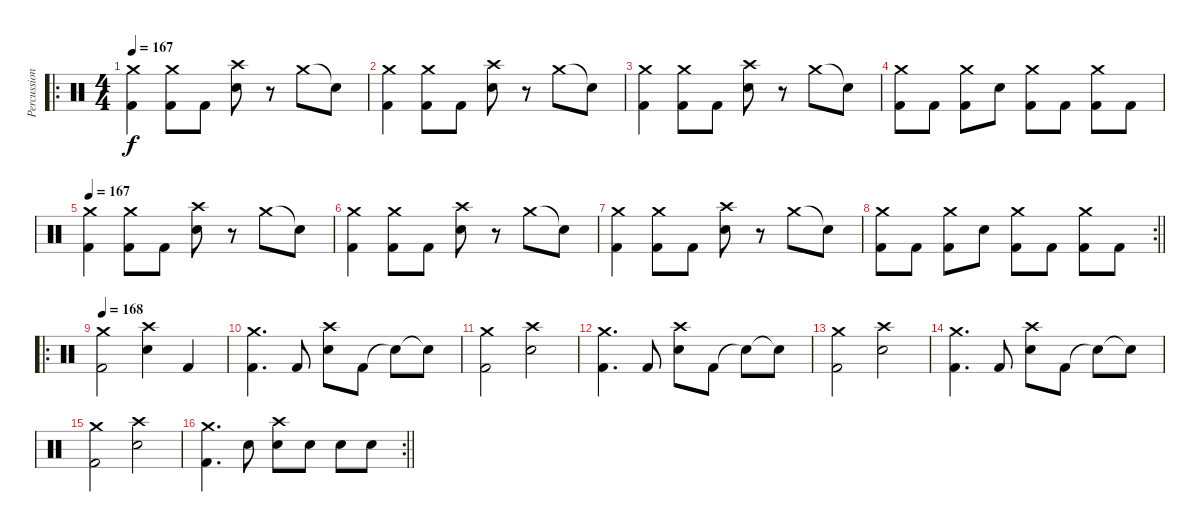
\track ("Percussion" "Percussion") {instrument percussion}
\staff {score}
\articulation defaults
\ro
\ts (4 4)
\section ("" "")
\tempo 167
\clef neutral
\ks c
("Crash medium (hit)" "Kick (hit) 2").4{dy f} ("Crash medium (hit)" "Kick (hit) 2").8 "Kick (hit) 2".8 ("Crash high (hit)" "Electric Snare (hit)").8 r.8 "Crash medium (hit)".8 "Snare (hit)"{t}.8 |
("Crash medium (hit)" "Kick (hit) 2").4 ("Crash medium (hit)" "Kick (hit) 2").8 "Kick (hit) 2".8 ("Crash high (hit)" "Electric Snare (hit)").8 r.8 "Crash medium (hit)".8 "Snare (hit)"{t}.8 |
("Crash medium (hit)" "Kick (hit) 2").4 ("Crash medium (hit)" "Kick (hit) 2").8 "Kick (hit) 2".8 ("Crash high (hit)" "Electric Snare (hit)").8 r.8 "Crash medium (hit)".8 "Snare (hit)"{t}.8 |
("Crash medium (hit)" "Kick (hit) 2").8 "Kick (hit) 2".8 ("Crash medium (hit)" "Kick (hit) 2").8 "Electric Snare (hit)".8 ("Crash medium (hit)" "Kick (hit) 2").8 "Kick (hit) 2".8 ("Crash medium (hit)" "Kick (hit) 2").8 "Kick (hit) 2".8 |
\tempo 167
("Crash medium (hit)" "Kick (hit) 2").4 ("Crash medium (hit)" "Kick (hit) 2").8 "Kick (hit) 2".8 ("Crash high (hit)" "Electric Snare (hit)").8 r.8 "Crash medium (hit)".8 "Snare (hit)"{t}.8 |
("Crash medium (hit)" "Kick (hit) 2").4 ("Crash medium (hit)" "Kick (hit) 2").8 "Kick (hit) 2".8 ("Crash high (hit)" "Electric Snare (hit)").8 r.8 "Crash medium (hit)".8 "Snare (hit)"{t}.8 |
("Crash medium (hit)" "Kick (hit) 2").4 ("Crash medium (hit)" "Kick (hit) 2").8 "Kick (hit) 2".8 ("Crash high (hit)" "Electric Snare (hit)").8 r.8 "Crash medium (hit)".8 "Snare (hit)"{t}.8 |
\rc 2
\barLineRight lightlight
("Crash medium (hit)" "Kick (hit) 2").8 "Kick (hit) 2".8 ("Crash medium (hit)" "Kick (hit) 2").8 "Electric Snare (hit)".8 ("Crash medium (hit)" "Kick (hit) 2").8 "Kick (hit) 2".8 ("Crash medium (hit)" "Kick (hit) 2").8 "Kick (hit) 2".8 |
\ro
\section ("" "")
\tempo 168
("Crash medium (hit)" "Kick (hit) 2").2 ("Crash high (hit)" "Electric Snare (hit)").4 "Kick (hit) 2".4 |
("Crash medium (hit)" "Kick (hit) 2").4{d} "Kick (hit) 2".8 ("Crash high (hit)" "Electric Snare (hit)").8 "Kick (hit) 2".8 "Snare (hit)"{t}.8 "Snare (hit)"{t}.8 |
("Crash medium (hit)" "Kick (hit) 2").2 ("Crash high (hit)" "Electric Snare (hit)").2 |
("Crash medium (hit)" "Kick (hit) 2").4{d} "Kick (hit) 2".8 ("Crash high (hit)" "Electric Snare (hit)").8 "Kick (hit) 2".8 "Snare (hit)"{t}.8 "Snare (hit)"{t}.8 |
("Crash medium (hit)" "Kick (hit) 2").2 ("Crash high (hit)" "Electric Snare (hit)").2 |
("Crash medium (hit)" "Kick (hit) 2").4{d} "Kick (hit) 2".8 ("Crash high (hit)" "Electric Snare (hit)").8 "Kick (hit) 2".8 "Snare (hit)"{t}.8 "Snare (hit)"{t}.8 |
("Crash medium (hit)" "Kick (hit) 2").2 ("Crash high (hit)" "Electric Snare (hit)").2 |
\rc 2
\barLineRight lightlight
("Crash medium (hit)" "Kick (hit) 2").4{d} "Electric Snare (hit)".8 ("Crash high (hit)" "Electric Snare (hit)").8 "Electric Snare (hit)".8 "Electric Snare (hit)".8 "Electric Snare (hit)".8
